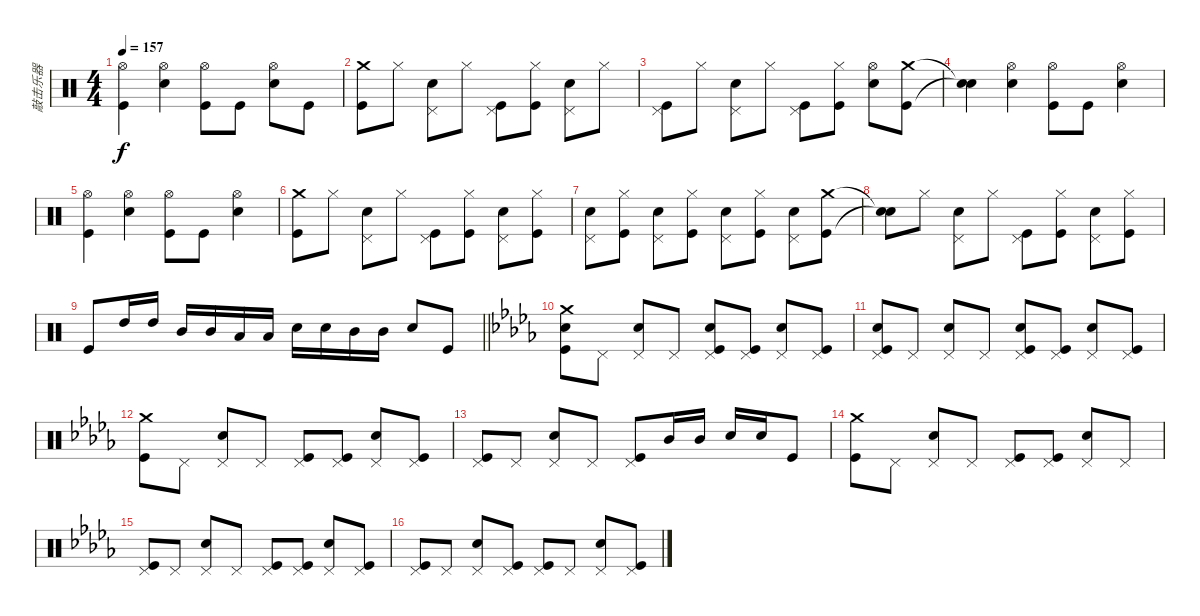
\track ("敲击乐器" "敲击乐器") {instrument percussion}
\staff {score}
\articulation defaults
\ts (4 4)
\tempo 157
\clef neutral
\ks c
("Hi-Hat (open)" "Kick (hit)").4{dy f} ("Hi-Hat (open)" "Snare (hit) 2").4 ("Hi-Hat (open)" "Kick (hit)").8 "Kick (hit)".8 ("Hi-Hat (open)" "Snare (hit) 2").8 "Kick (hit)".8 |
("Crash medium (hit)" "Kick (hit)").8 "Hi-Hat (closed)".8 ("Pedal Hi-Hat (hit)" "Snare (hit) 2").8 "Hi-Hat (closed)".8 ("Pedal Hi-Hat (hit)" "Kick (hit)").8 ("Hi-Hat (closed)" "Kick (hit)").8 ("Pedal Hi-Hat (hit)" "Snare (hit) 2").8 "Hi-Hat (closed)".8 |
("Pedal Hi-Hat (hit)" "Kick (hit)").8 "Hi-Hat (closed)".8 ("Pedal Hi-Hat (hit)" "Snare (hit) 2").8 "Hi-Hat (closed)".8 ("Pedal Hi-Hat (hit)" "Kick (hit)").8 ("Hi-Hat (closed)" "Kick (hit)").8 ("Hi-Hat (open)" "Snare (hit) 2").8 ("Crash medium (hit)" "Kick (hit)").8 |
("Snare (hit)"{t} "Snare (hit)"{t}).4 ("Hi-Hat (open)" "Snare (hit) 2").4 ("Hi-Hat (open)" "Kick (hit)").8 "Kick (hit)".8 ("Hi-Hat (open)" "Snare (hit) 2").4 |
("Hi-Hat (open)" "Kick (hit)").4 ("Hi-Hat (open)" "Snare (hit) 2").4 ("Hi-Hat (open)" "Kick (hit)").8 "Kick (hit)".8 ("Hi-Hat (open)" "Snare (hit) 2").4 |
("Crash medium (hit)" "Kick (hit)").8 "Hi-Hat (closed)".8 ("Pedal Hi-Hat (hit)" "Snare (hit) 2").8 "Hi-Hat (closed)".8 ("Pedal Hi-Hat (hit)" "Kick (hit)").8 ("Hi-Hat (closed)" "Kick (hit)").8 ("Pedal Hi-Hat (hit)" "Snare (hit) 2").8 ("Hi-Hat (closed)" "Kick (hit)").8 |
("Pedal Hi-Hat (hit)" "Snare (hit) 2").8 ("Hi-Hat (closed)" "Kick (hit)").8 ("Pedal Hi-Hat (hit)" "Snare (hit) 2").8 ("Hi-Hat (closed)" "Kick (hit)").8 ("Pedal Hi-Hat (hit)" "Snare (hit) 2").8 ("Hi-Hat (closed)" "Kick (hit)").8 ("Pedal Hi-Hat (hit)" "Snare (hit) 2").8 ("Crash medium (hit)" "Kick (hit)").8 |
("Snare (hit)"{t} "Snare (hit)"{t}).8 "Hi-Hat (closed)".8 ("Pedal Hi-Hat (hit)" "Snare (hit) 2").8 "Hi-Hat (closed)".8 ("Pedal Hi-Hat (hit)" "Kick (hit)").8 ("Hi-Hat (closed)" "Kick (hit)").8 ("Pedal Hi-Hat (hit)" "Snare (hit) 2").8 ("Hi-Hat (closed)" "Kick (hit)").8 |
\barLineRight lightlight "Kick (hit)".8 "High Tom (hit)".16 "High Tom (hit)".16 "Mid Tom (hit)".16 "Mid Tom (hit)".16 "Low Tom (hit)".16 "Low Tom (hit)".16 "Snare (hit) 2".16 "Snare (hit) 2".16 "Mid Tom (hit)".16 "Mid Tom (hit)".16 "Snare (hit) 2".8 "Kick (hit)".8
|
\ks db
("Crash medium (hit)" "Snare (hit) 2" "Kick (hit)").8 "Pedal Hi-Hat (hit)".8 ("Pedal Hi-Hat (hit)" "Snare (hit) 2").8 "Pedal Hi-Hat (hit)".8 ("Pedal Hi-Hat (hit)" "Snare (hit) 2" "Kick (hit)").8 ("Pedal Hi-Hat (hit)" "Kick (hit)").8 ("Pedal Hi-Hat (hit)" "Snare (hit) 2").8 ("Pedal Hi-Hat (hit)" "Kick (hit)").8 |
("Pedal Hi-Hat (hit)" "Snare (hit) 2" "Kick (hit)").8 "Pedal Hi-Hat (hit)".8 ("Pedal Hi-Hat (hit)" "Snare (hit) 2").8 "Pedal Hi-Hat (hit)".8 ("Pedal Hi-Hat (hit)" "Snare (hit) 2" "Kick (hit)").8 ("Pedal Hi-Hat (hit)" "Kick (hit)").8 ("Pedal Hi-Hat (hit)" "Snare (hit) 2").8 ("Pedal Hi-Hat (hit)" "Kick (hit)").8 |
("Crash medium (hit)" "Kick (hit)").8 "Pedal Hi-Hat (hit)".8 ("Pedal Hi-Hat (hit)" "Snare (hit) 2").8 "Pedal Hi-Hat (hit)".8 ("Pedal Hi-Hat (hit)" "Kick (hit)").8 ("Pedal Hi-Hat (hit)" "Kick (hit)").8 ("Pedal Hi-Hat (hit)" "Snare (hit) 2").8 ("Pedal Hi-Hat (hit)" "Kick (hit)").8 |
("Pedal Hi-Hat (hit)" "Kick (hit)").8 "Pedal Hi-Hat (hit)".8 ("Pedal Hi-Hat (hit)" "Snare (hit) 2").8 "Pedal Hi-Hat (hit)".8 ("Pedal Hi-Hat (hit)" "Kick (hit)").8 "Mid Tom (hit)".16 "Mid Tom (hit)".16 "Snare (hit) 2".16 "Snare (hit) 2".16 "Kick (hit)".8 |
("Crash medium (hit)" "Kick (hit)").8 "Pedal Hi-Hat (hit)".8 ("Pedal Hi-Hat (hit)" "Snare (hit) 2").8 "Pedal Hi-Hat (hit)".8 ("Pedal Hi-Hat (hit)" "Kick (hit)").8 ("Pedal Hi-Hat (hit)" "Kick (hit)").8 ("Pedal Hi-Hat (hit)" "Snare (hit) 2").8 "Pedal Hi-Hat (hit)".8 |
("Pedal Hi-Hat (hit)" "Kick (hit)").8 "Pedal Hi-Hat (hit)".8 ("Pedal Hi-Hat (hit)" "Snare (hit) 2").8 "Pedal Hi-Hat (hit)".8 ("Pedal Hi-Hat (hit)" "Kick (hit)").8 ("Pedal Hi-Hat (hit)" "Kick (hit)").8 ("Pedal Hi-Hat (hit)" "Snare (hit) 2").8 ("Pedal Hi-Hat (hit)" "Kick (hit)").8 |
("Pedal Hi-Hat (hit)" "Kick (hit)").8 "Pedal Hi-Hat (hit)".8 ("Pedal Hi-Hat (hit)" "Snare (hit) 2").8 ("Pedal Hi-Hat (hit)" "Kick (hit)").8 ("Pedal Hi-Hat (hit)" "Kick (hit)").8 "Pedal Hi-Hat (hit)".8 ("Pedal Hi-Hat (hit)" "Snare (hit) 2").8 ("Pedal Hi-Hat (hit)" "Kick (hit)").8
